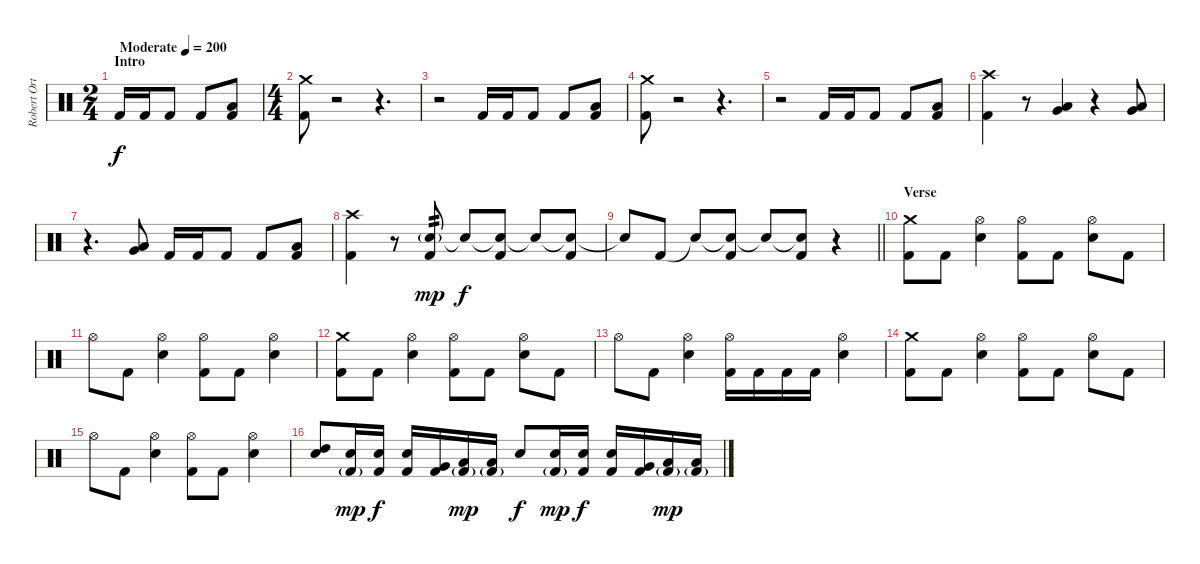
\track ("Robert Ortiz - Drums" "Robert Ort") {instrument percussion}
\staff {score}
\articulation defaults
\ts (2 4)
\section ("" "Intro")
\tempo (200 "Moderate")
\clef neutral
\ks c "Kick (hit) 2".16{dy f} "Kick (hit) 2".16 "Kick (hit) 2".8 "Kick (hit) 2".8
("Low Floor Tom (hit)" "Kick (hit) 2").8 |
\ts (4 4)
("Crash medium (hit)" "Kick (hit) 2").8 r.2 r.4{d} |
r.2 "Kick (hit) 2".16 "Kick (hit) 2".16 "Kick (hit) 2".8 "Kick (hit) 2".8 ("Low Floor Tom (hit)" "Kick (hit) 2").8 |
("Crash medium (hit)" "Kick (hit) 2").8 r.2 r.4{d} |
r.2 "Kick (hit) 2".16 "Kick (hit) 2".16 "Kick (hit) 2".8 "Kick (hit) 2".8 ("Low Floor Tom (hit)" "Kick (hit) 2").8 |
("Crash high (hit)" "Kick (hit) 2").4 r.8 ("Very Low Tom (hit)" "Low Floor Tom (hit)").4 r.4 ("Very Low Tom (hit)" "Low Floor Tom (hit)").8 |
r.4{d} ("Very Low Tom (hit)" "Low Floor Tom (hit)").8 "Kick (hit) 2".16 "Kick (hit) 2".16 "Kick (hit) 2".8 "Kick (hit) 2".8 ("Low Floor Tom (hit)" "Kick (hit) 2").8 |
("Crash high (hit)" "Kick (hit) 2").4 r.8 ("Electric Snare (hit)"{g} "Kick (hit) 2").8{tp 2 dy mp} "Snare (hit)"{t}.8{dy f} ("Snare (hit)"{t} "Kick (hit) 2").8 "Snare (hit)"{t}.8 ("Snare (hit)"{t} "Kick (hit) 2").8 |
\barLineRight lightlight "Snare (hit)"{t}.8 "Kick (hit) 2".8 "Snare (hit)"{t}.8
("Snare (hit)"{t} "Kick (hit) 2").8 "Snare (hit)"{t}.8 ("Snare (hit)"{t} "Kick (hit) 2").8 r.4 |
\section ("" "Verse")
("Crash medium (hit)" "Kick (hit) 2").8 "Kick (hit) 2".8 ("Hi-Hat (open)" "Electric Snare (hit)").4 ("Hi-Hat (open)" "Kick (hit) 2").8 "Kick (hit) 2".8 ("Hi-Hat (open)" "Electric Snare (hit)").8 "Kick (hit) 2".8 |
"Hi-Hat (open)".8 "Kick (hit) 2".8 ("Hi-Hat (open)" "Electric Snare (hit)").4 ("Hi-Hat (open)" "Kick (hit) 2").8 "Kick (hit) 2".8 ("Hi-Hat (open)" "Electric Snare (hit)").4 |
("Crash medium (hit)" "Kick (hit) 2").8 "Kick (hit) 2".8 ("Hi-Hat (open)" "Electric Snare (hit)").4 ("Hi-Hat (open)" "Kick (hit) 2").8 "Kick (hit) 2".8 ("Hi-Hat (open)" "Electric Snare (hit)").8 "Kick (hit) 2".8 |
"Hi-Hat (open)".8 "Kick (hit) 2".8 ("Hi-Hat (open)" "Electric Snare (hit)").4 ("Hi-Hat (open)" "Kick (hit) 2").16 "Kick (hit) 2".16 "Kick (hit) 2".16 "Kick (hit) 2".16 ("Hi-Hat (open)" "Electric Snare (hit)").4 |
("Crash medium (hit)" "Kick (hit) 2").8 "Kick (hit) 2".8 ("Hi-Hat (open)" "Electric Snare (hit)").4 ("Hi-Hat (open)" "Kick (hit) 2").8 "Kick (hit) 2".8 ("Hi-Hat (open)" "Electric Snare (hit)").8 "Kick (hit) 2".8 |
"Hi-Hat (open)".8 "Kick (hit) 2".8 ("Hi-Hat (open)" "Electric Snare (hit)").4 ("Hi-Hat (open)" "Kick (hit) 2").8 "Kick (hit) 2".8 ("Hi-Hat (open)" "Electric Snare (hit)").4 |
("High Tom (hit)" "Electric Snare (hit)").8 ("Electric Snare (hit)" "Kick (hit) 2"{g}).16{dy mp} ("Electric Snare (hit)" "Kick (hit) 2").16{dy f} ("Electric Snare (hit)" "Kick (hit) 2").16 ("Very Low Tom (hit)" "Kick (hit) 2").16 ("Low Floor Tom (hit)" "Kick (hit) 2"{g}).16{dy mp} ("Low Floor Tom (hit)" "Kick (hit) 2"{g}).16 "Electric Snare (hit)".8{dy f} ("Electric Snare (hit)" "Kick (hit) 2"{g}).16{dy mp} ("Electric Snare (hit)" "Kick (hit) 2").16{dy f} ("Electric Snare (hit)" "Kick (hit) 2").16 ("Very Low Tom (hit)" "Kick (hit) 2").16 ("Low Floor Tom (hit)" "Kick (hit) 2"{g}).16{dy mp} ("Low Floor Tom (hit)" "Kick (hit) 2"{g}).16
